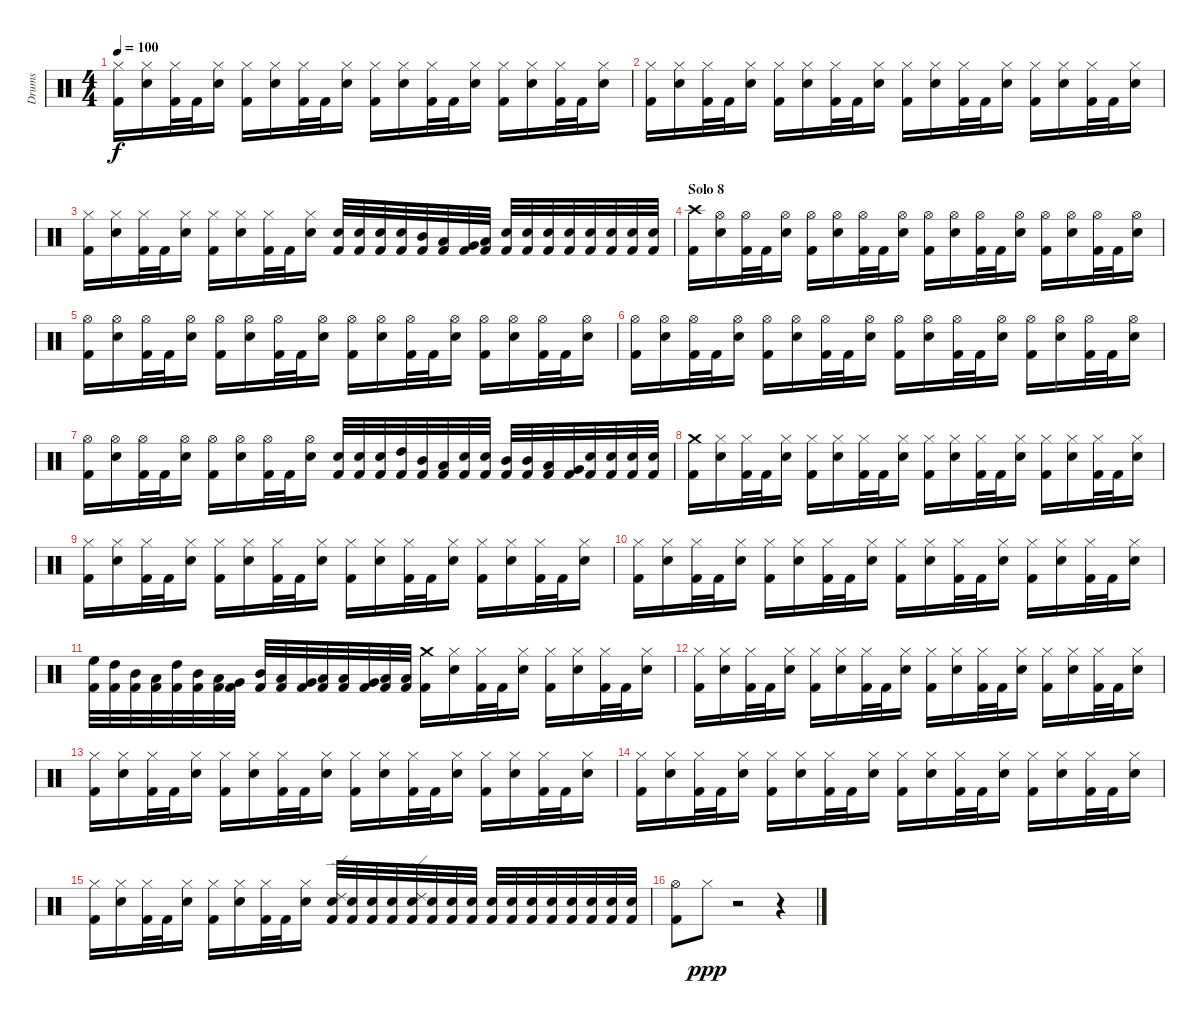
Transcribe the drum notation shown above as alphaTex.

\track ("Drums" "Drums") {instrument percussion}
\staff {score}
\articulation defaults
\ts (4 4)
\tempo 100
\clef neutral
\ks c
("Kick (hit) 2" "Hi-Hat (closed)").16{dy f} ("Snare (hit) 2" "Hi-Hat (closed)").16 ("Kick (hit) 2" "Hi-Hat (closed)").32 "Kick (hit) 2".32 ("Snare (hit) 2" "Hi-Hat (closed)").16 ("Kick (hit) 2" "Hi-Hat (closed)").16 ("Snare (hit) 2" "Hi-Hat (closed)").16 ("Kick (hit) 2" "Hi-Hat (closed)").32 "Kick (hit) 2".32 ("Snare (hit) 2" "Hi-Hat (closed)").16 ("Kick (hit) 2" "Hi-Hat (closed)").16 ("Snare (hit) 2" "Hi-Hat (closed)").16 ("Kick (hit) 2" "Hi-Hat (closed)").32 "Kick (hit) 2".32 ("Snare (hit) 2" "Hi-Hat (closed)").16 ("Kick (hit) 2" "Hi-Hat (closed)").16 ("Snare (hit) 2" "Hi-Hat (closed)").16 ("Kick (hit) 2" "Hi-Hat (closed)").32 "Kick (hit) 2".32 ("Snare (hit) 2" "Hi-Hat (closed)").16 |
("Kick (hit) 2" "Hi-Hat (closed)").16 ("Snare (hit) 2" "Hi-Hat (closed)").16 ("Kick (hit) 2" "Hi-Hat (closed)").32 "Kick (hit) 2".32 ("Snare (hit) 2" "Hi-Hat (closed)").16 ("Kick (hit) 2" "Hi-Hat (closed)").16 ("Snare (hit) 2" "Hi-Hat (closed)").16 ("Kick (hit) 2" "Hi-Hat (closed)").32 "Kick (hit) 2".32 ("Snare (hit) 2" "Hi-Hat (closed)").16 ("Kick (hit) 2" "Hi-Hat (closed)").16 ("Snare (hit) 2" "Hi-Hat (closed)").16 ("Kick (hit) 2" "Hi-Hat (closed)").32 "Kick (hit) 2".32 ("Snare (hit) 2" "Hi-Hat (closed)").16 ("Kick (hit) 2" "Hi-Hat (closed)").16 ("Snare (hit) 2" "Hi-Hat (closed)").16 ("Kick (hit) 2" "Hi-Hat (closed)").32 "Kick (hit) 2".32 ("Snare (hit) 2" "Hi-Hat (closed)").16 |
("Kick (hit) 2" "Hi-Hat (closed)").16 ("Snare (hit) 2" "Hi-Hat (closed)").16 ("Kick (hit) 2" "Hi-Hat (closed)").32 "Kick (hit) 2".32 ("Snare (hit) 2" "Hi-Hat (closed)").16 ("Kick (hit) 2" "Hi-Hat (closed)").16 ("Snare (hit) 2" "Hi-Hat (closed)").16 ("Kick (hit) 2" "Hi-Hat (closed)").32 "Kick (hit) 2".32 ("Snare (hit) 2" "Hi-Hat (closed)").16 ("Kick (hit) 2" "Snare (hit) 2").32 ("Kick (hit) 2" "Snare (hit) 2").32 ("Kick (hit) 2" "Snare (hit) 2").32 ("Kick (hit) 2" "Snare (hit) 2").32 ("Kick (hit) 2" "Mid Tom (hit)").32 ("Kick (hit) 2" "Low Tom (hit)").32 ("Kick (hit) 2" "Very Low Tom (hit)").32 ("Kick (hit) 2" "Low Floor Tom (hit)").32 ("Kick (hit) 2" "Snare (hit) 2").32 ("Kick (hit) 2" "Snare (hit) 2").32 ("Kick (hit) 2" "Snare (hit) 2").32 ("Kick (hit) 2" "Snare (hit) 2").32 ("Kick (hit) 2" "Snare (hit) 2").32 ("Kick (hit) 2" "Snare (hit) 2").32 ("Kick (hit) 2" "Snare (hit) 2").32 ("Kick (hit) 2" "Snare (hit) 2").32 |
\section ("" "Solo 8")
("Kick (hit) 2" "Crash high (hit)").16 ("Snare (hit) 2" "Hi-Hat (open)").16 ("Kick (hit) 2" "Hi-Hat (open)").32 "Kick (hit) 2".32 ("Snare (hit) 2" "Hi-Hat (open)").16 ("Kick (hit) 2" "Hi-Hat (open)").16 ("Snare (hit) 2" "Hi-Hat (open)").16 ("Kick (hit) 2" "Hi-Hat (open)").32 "Kick (hit) 2".32 ("Snare (hit) 2" "Hi-Hat (open)").16 ("Kick (hit) 2" "Hi-Hat (open)").16 ("Snare (hit) 2" "Hi-Hat (open)").16 ("Kick (hit) 2" "Hi-Hat (open)").32 "Kick (hit) 2".32 ("Snare (hit) 2" "Hi-Hat (open)").16 ("Kick (hit) 2" "Hi-Hat (open)").16 ("Snare (hit) 2" "Hi-Hat (open)").16 ("Kick (hit) 2" "Hi-Hat (open)").32 "Kick (hit) 2".32 ("Snare (hit) 2" "Hi-Hat (open)").16 |
("Kick (hit) 2" "Hi-Hat (open)").16 ("Snare (hit) 2" "Hi-Hat (open)").16 ("Kick (hit) 2" "Hi-Hat (open)").32 "Kick (hit) 2".32 ("Snare (hit) 2" "Hi-Hat (open)").16 ("Kick (hit) 2" "Hi-Hat (open)").16 ("Snare (hit) 2" "Hi-Hat (open)").16 ("Kick (hit) 2" "Hi-Hat (open)").32 "Kick (hit) 2".32 ("Snare (hit) 2" "Hi-Hat (open)").16 ("Kick (hit) 2" "Hi-Hat (open)").16 ("Snare (hit) 2" "Hi-Hat (open)").16 ("Kick (hit) 2" "Hi-Hat (open)").32 "Kick (hit) 2".32 ("Snare (hit) 2" "Hi-Hat (open)").16 ("Kick (hit) 2" "Hi-Hat (open)").16 ("Snare (hit) 2" "Hi-Hat (open)").16 ("Kick (hit) 2" "Hi-Hat (open)").32 "Kick (hit) 2".32 ("Snare (hit) 2" "Hi-Hat (open)").16 |
("Kick (hit) 2" "Hi-Hat (open)").16 ("Snare (hit) 2" "Hi-Hat (open)").16 ("Kick (hit) 2" "Hi-Hat (open)").32 "Kick (hit) 2".32 ("Snare (hit) 2" "Hi-Hat (open)").16 ("Kick (hit) 2" "Hi-Hat (open)").16 ("Snare (hit) 2" "Hi-Hat (open)").16 ("Kick (hit) 2" "Hi-Hat (open)").32 "Kick (hit) 2".32 ("Snare (hit) 2" "Hi-Hat (open)").16 ("Kick (hit) 2" "Hi-Hat (open)").16 ("Snare (hit) 2" "Hi-Hat (open)").16 ("Kick (hit) 2" "Hi-Hat (open)").32 "Kick (hit) 2".32 ("Snare (hit) 2" "Hi-Hat (open)").16 ("Kick (hit) 2" "Hi-Hat (open)").16 ("Snare (hit) 2" "Hi-Hat (open)").16 ("Kick (hit) 2" "Hi-Hat (open)").32 "Kick (hit) 2".32 ("Snare (hit) 2" "Hi-Hat (open)").16 |
("Kick (hit) 2" "Hi-Hat (open)").16 ("Snare (hit) 2" "Hi-Hat (open)").16 ("Kick (hit) 2" "Hi-Hat (open)").32 "Kick (hit) 2".32 ("Snare (hit) 2" "Hi-Hat (open)").16 ("Kick (hit) 2" "Hi-Hat (open)").16 ("Snare (hit) 2" "Hi-Hat (open)").16 ("Kick (hit) 2" "Hi-Hat (open)").32 "Kick (hit) 2".32 ("Snare (hit) 2" "Hi-Hat (open)").16 ("Kick (hit) 2" "Snare (hit) 2").32 ("Kick (hit) 2" "Snare (hit) 2").32 ("Kick (hit) 2" "Snare (hit) 2").32 ("Kick (hit) 2" "High Tom (hit)").32 ("Kick (hit) 2" "Mid Tom (hit)").32 ("Kick (hit) 2" "Low Tom (hit)").32 ("Kick (hit) 2" "Snare (hit) 2").32 ("Kick (hit) 2" "Snare (hit) 2").32 ("Kick (hit) 2" "Mid Tom (hit)").32 ("Kick (hit) 2" "Mid Tom (hit)").32 ("Kick (hit) 2" "Low Tom (hit)").32 ("Kick (hit) 2" "Very Low Tom (hit)").32 ("Kick (hit) 2" "Snare (hit) 2").32 ("Kick (hit) 2" "Snare (hit) 2").32 ("Kick (hit) 2" "Snare (hit) 2").32 ("Kick (hit) 2" "Snare (hit) 2").32 |
\section ("" "")
("Kick (hit) 2" "Crash medium (hit)").16 ("Snare (hit) 2" "Hi-Hat (closed)").16 ("Kick (hit) 2" "Hi-Hat (closed)").32 "Kick (hit) 2".32 ("Snare (hit) 2" "Hi-Hat (closed)").16 ("Kick (hit) 2" "Hi-Hat (closed)").16 ("Snare (hit) 2" "Hi-Hat (closed)").16 ("Kick (hit) 2" "Hi-Hat (closed)").32 "Kick (hit) 2".32 ("Snare (hit) 2" "Hi-Hat (closed)").16 ("Kick (hit) 2" "Hi-Hat (closed)").16 ("Snare (hit) 2" "Hi-Hat (closed)").16 ("Kick (hit) 2" "Hi-Hat (closed)").32 "Kick (hit) 2".32 ("Snare (hit) 2" "Hi-Hat (closed)").16 ("Kick (hit) 2" "Hi-Hat (closed)").16 ("Snare (hit) 2" "Hi-Hat (closed)").16 ("Kick (hit) 2" "Hi-Hat (closed)").32 "Kick (hit) 2".32 ("Snare (hit) 2" "Hi-Hat (closed)").16 |
("Kick (hit) 2" "Hi-Hat (closed)").16 ("Snare (hit) 2" "Hi-Hat (closed)").16 ("Kick (hit) 2" "Hi-Hat (closed)").32 "Kick (hit) 2".32 ("Snare (hit) 2" "Hi-Hat (closed)").16 ("Kick (hit) 2" "Hi-Hat (closed)").16 ("Snare (hit) 2" "Hi-Hat (closed)").16 ("Kick (hit) 2" "Hi-Hat (closed)").32 "Kick (hit) 2".32 ("Snare (hit) 2" "Hi-Hat (closed)").16 ("Kick (hit) 2" "Hi-Hat (closed)").16 ("Snare (hit) 2" "Hi-Hat (closed)").16 ("Kick (hit) 2" "Hi-Hat (closed)").32 "Kick (hit) 2".32 ("Snare (hit) 2" "Hi-Hat (closed)").16 ("Kick (hit) 2" "Hi-Hat (closed)").16 ("Snare (hit) 2" "Hi-Hat (closed)").16 ("Kick (hit) 2" "Hi-Hat (closed)").32 "Kick (hit) 2".32 ("Snare (hit) 2" "Hi-Hat (closed)").16 |
("Kick (hit) 2" "Hi-Hat (closed)").16 ("Snare (hit) 2" "Hi-Hat (closed)").16 ("Kick (hit) 2" "Hi-Hat (closed)").32 "Kick (hit) 2".32 ("Snare (hit) 2" "Hi-Hat (closed)").16 ("Kick (hit) 2" "Hi-Hat (closed)").16 ("Snare (hit) 2" "Hi-Hat (closed)").16 ("Kick (hit) 2" "Hi-Hat (closed)").32 "Kick (hit) 2".32 ("Snare (hit) 2" "Hi-Hat (closed)").16 ("Kick (hit) 2" "Hi-Hat (closed)").16 ("Snare (hit) 2" "Hi-Hat (closed)").16 ("Kick (hit) 2" "Hi-Hat (closed)").32 "Kick (hit) 2".32 ("Snare (hit) 2" "Hi-Hat (closed)").16 ("Kick (hit) 2" "Hi-Hat (closed)").16 ("Snare (hit) 2" "Hi-Hat (closed)").16 ("Kick (hit) 2" "Hi-Hat (closed)").32 "Kick (hit) 2".32 ("Snare (hit) 2" "Hi-Hat (closed)").16 |
("Kick (hit) 2" "High Floor Tom (hit)").32 ("Kick (hit) 2" "High Tom (hit)").32 ("Kick (hit) 2" "Mid Tom (hit)").32 ("Kick (hit) 2" "Low Tom (hit)").32 ("Kick (hit) 2" "High Tom (hit)").32 ("Kick (hit) 2" "Mid Tom (hit)").32 ("Kick (hit) 2" "Low Tom (hit)").32 ("Kick (hit) 2" "Very Low Tom (hit)").32 ("Kick (hit) 2" "Mid Tom (hit)").32 ("Kick (hit) 2" "Low Tom (hit)").32 ("Kick (hit) 2" "Very Low Tom (hit)").32 ("Kick (hit) 2" "Low Floor Tom (hit)").32 ("Kick (hit) 2" "Low Tom (hit)").32 ("Kick (hit) 2" "Very Low Tom (hit)").32 ("Kick (hit) 2" "Low Floor Tom (hit)").32 ("Kick (hit) 2" "Low Floor Tom (hit)").32 ("Kick (hit) 2" "Crash medium (hit)").16 ("Snare (hit) 2" "Hi-Hat (closed)").16 ("Kick (hit) 2" "Hi-Hat (closed)").32 "Kick (hit) 2".32 ("Snare (hit) 2" "Hi-Hat (closed)").16 ("Kick (hit) 2" "Hi-Hat (closed)").16 ("Snare (hit) 2" "Hi-Hat (closed)").16 ("Kick (hit) 2" "Hi-Hat (closed)").32 "Kick (hit) 2".32 ("Snare (hit) 2" "Hi-Hat (closed)").16 |
("Kick (hit) 2" "Hi-Hat (closed)").16 ("Snare (hit) 2" "Hi-Hat (closed)").16 ("Kick (hit) 2" "Hi-Hat (closed)").32 "Kick (hit) 2".32 ("Snare (hit) 2" "Hi-Hat (closed)").16 ("Kick (hit) 2" "Hi-Hat (closed)").16 ("Snare (hit) 2" "Hi-Hat (closed)").16 ("Kick (hit) 2" "Hi-Hat (closed)").32 "Kick (hit) 2".32 ("Snare (hit) 2" "Hi-Hat (closed)").16 ("Kick (hit) 2" "Hi-Hat (closed)").16 ("Snare (hit) 2" "Hi-Hat (closed)").16 ("Kick (hit) 2" "Hi-Hat (closed)").32 "Kick (hit) 2".32 ("Snare (hit) 2" "Hi-Hat (closed)").16 ("Kick (hit) 2" "Hi-Hat (closed)").16 ("Snare (hit) 2" "Hi-Hat (closed)").16 ("Kick (hit) 2" "Hi-Hat (closed)").32 "Kick (hit) 2".32 ("Snare (hit) 2" "Hi-Hat (closed)").16 |
("Kick (hit) 2" "Hi-Hat (closed)").16 ("Snare (hit) 2" "Hi-Hat (closed)").16 ("Kick (hit) 2" "Hi-Hat (closed)").32 "Kick (hit) 2".32 ("Snare (hit) 2" "Hi-Hat (closed)").16 ("Kick (hit) 2" "Hi-Hat (closed)").16 ("Snare (hit) 2" "Hi-Hat (closed)").16 ("Kick (hit) 2" "Hi-Hat (closed)").32 "Kick (hit) 2".32 ("Snare (hit) 2" "Hi-Hat (closed)").16 ("Kick (hit) 2" "Hi-Hat (closed)").16 ("Snare (hit) 2" "Hi-Hat (closed)").16 ("Kick (hit) 2" "Hi-Hat (closed)").32 "Kick (hit) 2".32 ("Snare (hit) 2" "Hi-Hat (closed)").16 ("Kick (hit) 2" "Hi-Hat (closed)").16 ("Snare (hit) 2" "Hi-Hat (closed)").16 ("Kick (hit) 2" "Hi-Hat (closed)").32 "Kick (hit) 2".32 ("Snare (hit) 2" "Hi-Hat (closed)").16 |
("Kick (hit) 2" "Hi-Hat (closed)").16 ("Snare (hit) 2" "Hi-Hat (closed)").16 ("Kick (hit) 2" "Hi-Hat (closed)").32 "Kick (hit) 2".32 ("Snare (hit) 2" "Hi-Hat (closed)").16 ("Kick (hit) 2" "Hi-Hat (closed)").16 ("Snare (hit) 2" "Hi-Hat (closed)").16 ("Kick (hit) 2" "Hi-Hat (closed)").32 "Kick (hit) 2".32 ("Snare (hit) 2" "Hi-Hat (closed)").16 ("Kick (hit) 2" "Hi-Hat (closed)").16 ("Snare (hit) 2" "Hi-Hat (closed)").16 ("Kick (hit) 2" "Hi-Hat (closed)").32 "Kick (hit) 2".32 ("Snare (hit) 2" "Hi-Hat (closed)").16 ("Kick (hit) 2" "Hi-Hat (closed)").16 ("Snare (hit) 2" "Hi-Hat (closed)").16 ("Kick (hit) 2" "Hi-Hat (closed)").32 "Kick (hit) 2".32 ("Snare (hit) 2" "Hi-Hat (closed)").16 |
("Kick (hit) 2" "Hi-Hat (closed)").16 ("Snare (hit) 2" "Hi-Hat (closed)").16 ("Kick (hit) 2" "Hi-Hat (closed)").32 "Kick (hit) 2".32 ("Snare (hit) 2" "Hi-Hat (closed)").16 ("Kick (hit) 2" "Hi-Hat (closed)").16 ("Snare (hit) 2" "Hi-Hat (closed)").16 ("Kick (hit) 2" "Hi-Hat (closed)").32 "Kick (hit) 2".32 ("Snare (hit) 2" "Hi-Hat (closed)").16 ("Kick (hit) 2" "Snare (hit) 2" "Ride (edge) 2").32 ("Kick (hit) 2" "Snare (hit) 2").32 ("Kick (hit) 2" "Snare (hit) 2").32 ("Kick (hit) 2" "Snare (hit) 2").32 ("Kick (hit) 2" "Snare (hit) 2" "Ride (edge) 2").32 ("Kick (hit) 2" "Snare (hit) 2").32 ("Kick (hit) 2" "Snare (hit) 2").32 ("Kick (hit) 2" "Snare (hit) 2").32 ("Kick (hit) 2" "Snare (hit) 2").32 ("Kick (hit) 2" "Snare (hit) 2").32 ("Kick (hit) 2" "Snare (hit) 2").32 ("Kick (hit) 2" "Snare (hit) 2").32 ("Kick (hit) 2" "Snare (hit) 2").32 ("Kick (hit) 2" "Snare (hit) 2").32 ("Kick (hit) 2" "Snare (hit) 2").32 ("Kick (hit) 2" "Snare (hit) 2").32 |
\section ("" "")
("Kick (hit) 2" "Hi-Hat (open)").8 "Hi-Hat (closed)".8{dy ppp} r.2 r.4
